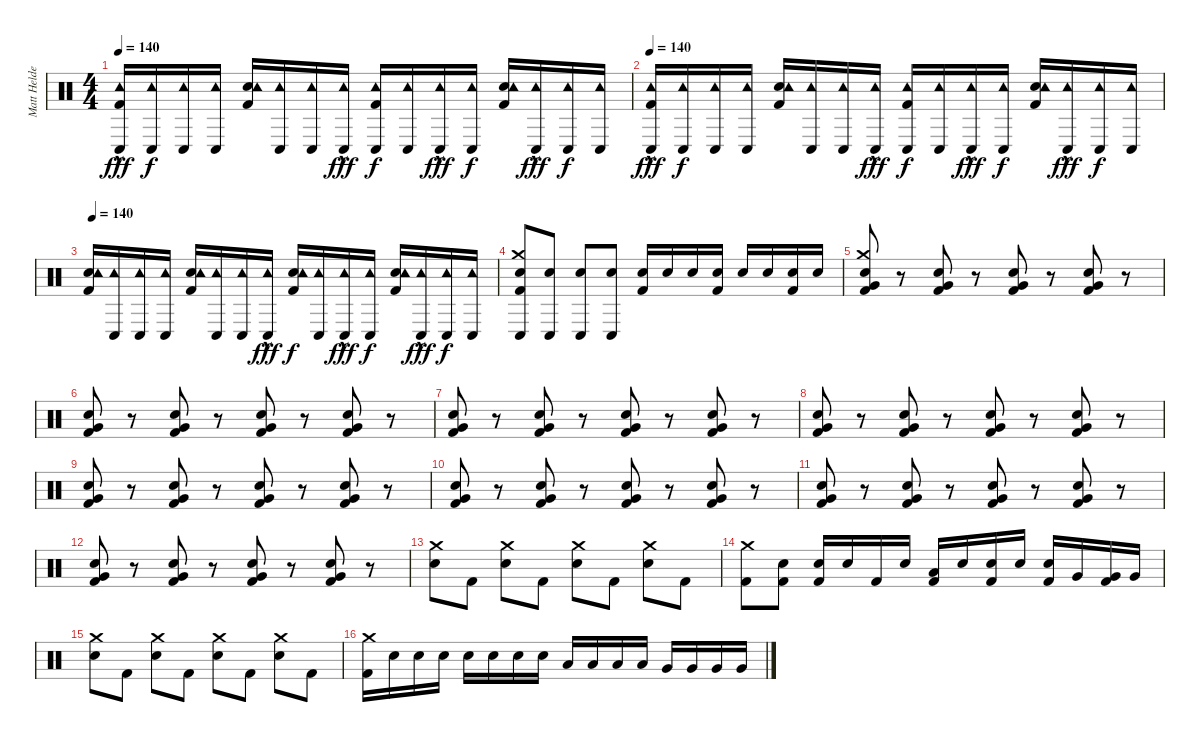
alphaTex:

\track ("Matt Helders" "Matt Helde") {instrument percussion}
\staff {score}
\articulation defaults
\ts (4 4)
\tempo 140
\clef neutral
\ks c
("Conga low (hit)"{hac} "Tambourine (hit)" "Kick (hit) 2").16{dy fff} ("Conga low (hit)" "Tambourine (hit)").16{dy f} ("Conga low (hit)" "Tambourine (hit)").16 ("Conga low (hit)" "Tambourine (hit)").16 ("Snare (hit) 2" "Tambourine (hit)" "Kick (hit) 2").16 ("Conga low (hit)" "Tambourine (hit)").16 ("Conga low (hit)" "Tambourine (hit)").16 ("Conga low (hit)"{hac} "Tambourine (hit)").16{dy fff} ("Conga low (hit)" "Tambourine (hit)" "Kick (hit) 2").16{dy f} ("Conga low (hit)" "Tambourine (hit)").16 ("Conga low (hit)"{hac} "Tambourine (hit)").16{dy fff} ("Conga low (hit)" "Tambourine (hit)").16{dy f} ("Snare (hit) 2" "Tambourine (hit)" "Kick (hit) 2").16 ("Conga low (hit)"{hac} "Tambourine (hit)").16{dy fff} ("Conga low (hit)" "Tambourine (hit)").16{dy f} ("Conga low (hit)" "Tambourine (hit)").16 |
\tempo 140
("Conga low (hit)"{hac} "Tambourine (hit)" "Kick (hit) 2").16{dy fff} ("Conga low (hit)" "Tambourine (hit)").16{dy f} ("Conga low (hit)" "Tambourine (hit)").16 ("Conga low (hit)" "Tambourine (hit)").16 ("Snare (hit) 2" "Tambourine (hit)" "Kick (hit) 2").16 ("Conga low (hit)" "Tambourine (hit)").16 ("Conga low (hit)" "Tambourine (hit)").16 ("Conga low (hit)"{hac} "Tambourine (hit)").16{dy fff} ("Conga low (hit)" "Tambourine (hit)" "Kick (hit) 2").16{dy f} ("Conga low (hit)" "Tambourine (hit)").16 ("Conga low (hit)"{hac} "Tambourine (hit)").16{dy fff} ("Conga low (hit)" "Tambourine (hit)").16{dy f} ("Snare (hit) 2" "Tambourine (hit)" "Kick (hit) 2").16 ("Conga low (hit)"{hac} "Tambourine (hit)").16{dy fff} ("Conga low (hit)" "Tambourine (hit)").16{dy f} ("Conga low (hit)" "Tambourine (hit)").16 |
\tempo 140
("Snare (hit) 2" "Tambourine (hit)" "Kick (hit) 2").16 ("Conga low (hit)" "Tambourine (hit)").16 ("Conga low (hit)" "Tambourine (hit)").16 ("Conga low (hit)" "Tambourine (hit)").16 ("Snare (hit) 2" "Tambourine (hit)" "Kick (hit) 2").16 ("Conga low (hit)" "Tambourine (hit)").16 ("Conga low (hit)" "Tambourine (hit)").16 ("Conga low (hit)"{hac} "Tambourine (hit)").16{dy fff} ("Snare (hit) 2" "Tambourine (hit)" "Kick (hit) 2").16{dy f} ("Conga low (hit)" "Tambourine (hit)").16 ("Conga low (hit)"{hac} "Tambourine (hit)").16{dy fff} ("Conga low (hit)" "Tambourine (hit)").16{dy f} ("Snare (hit) 2" "Tambourine (hit)" "Kick (hit) 2").16 ("Conga low (hit)"{hac} "Tambourine (hit)").16{dy fff} ("Conga low (hit)" "Tambourine (hit)").16{dy f} ("Conga low (hit)" "Tambourine (hit)").16 |
("Crash medium (hit)" "Conga low (hit)" "Snare (hit) 2" "Kick (hit) 2").8 ("Conga low (hit)" "Snare (hit) 2").8 ("Conga low (hit)" "Snare (hit) 2").8 ("Conga low (hit)" "Snare (hit) 2").8 ("Snare (hit) 2" "Kick (hit) 2").16 "Snare (hit) 2".16 "Snare (hit) 2".16 ("Snare (hit) 2" "Kick (hit) 2").16 "Snare (hit) 2".16 "Snare (hit) 2".16 ("Snare (hit) 2" "Kick (hit) 2").16 "Snare (hit) 2".16 |
("Crash medium (hit)" "Snare (hit) 2" "Very Low Tom (hit)" "Kick (hit) 2").8 r.8 ("Snare (hit) 2" "Very Low Tom (hit)" "Kick (hit) 2").8 r.8 ("Snare (hit) 2" "Very Low Tom (hit)" "Kick (hit) 2").8 r.8 ("Snare (hit) 2" "Very Low Tom (hit)" "Kick (hit) 2").8 r.8 |
("Snare (hit) 2" "Very Low Tom (hit)" "Kick (hit) 2").8 r.8 ("Snare (hit) 2" "Very Low Tom (hit)" "Kick (hit) 2").8 r.8 ("Snare (hit) 2" "Very Low Tom (hit)" "Kick (hit) 2").8 r.8 ("Snare (hit) 2" "Very Low Tom (hit)" "Kick (hit) 2").8 r.8 |
("Snare (hit) 2" "Very Low Tom (hit)" "Kick (hit) 2").8 r.8 ("Snare (hit) 2" "Very Low Tom (hit)" "Kick (hit) 2").8 r.8 ("Snare (hit) 2" "Very Low Tom (hit)" "Kick (hit) 2").8 r.8 ("Snare (hit) 2" "Very Low Tom (hit)" "Kick (hit) 2").8 r.8 |
("Snare (hit) 2" "Very Low Tom (hit)" "Kick (hit) 2").8 r.8 ("Snare (hit) 2" "Very Low Tom (hit)" "Kick (hit) 2").8 r.8 ("Snare (hit) 2" "Very Low Tom (hit)" "Kick (hit) 2").8 r.8 ("Snare (hit) 2" "Very Low Tom (hit)" "Kick (hit) 2").8 r.8 |
("Snare (hit) 2" "Very Low Tom (hit)" "Kick (hit) 2").8 r.8 ("Snare (hit) 2" "Very Low Tom (hit)" "Kick (hit) 2").8 r.8 ("Snare (hit) 2" "Very Low Tom (hit)" "Kick (hit) 2").8 r.8 ("Snare (hit) 2" "Very Low Tom (hit)" "Kick (hit) 2").8 r.8 |
("Snare (hit) 2" "Very Low Tom (hit)" "Kick (hit) 2").8 r.8 ("Snare (hit) 2" "Very Low Tom (hit)" "Kick (hit) 2").8 r.8 ("Snare (hit) 2" "Very Low Tom (hit)" "Kick (hit) 2").8 r.8 ("Snare (hit) 2" "Very Low Tom (hit)" "Kick (hit) 2").8 r.8 |
("Snare (hit) 2" "Very Low Tom (hit)" "Kick (hit) 2").8 r.8 ("Snare (hit) 2" "Very Low Tom (hit)" "Kick (hit) 2").8 r.8 ("Snare (hit) 2" "Very Low Tom (hit)" "Kick (hit) 2").8 r.8 ("Snare (hit) 2" "Very Low Tom (hit)" "Kick (hit) 2").8 r.8 |
("Snare (hit) 2" "Very Low Tom (hit)" "Kick (hit) 2").8 r.8 ("Snare (hit) 2" "Very Low Tom (hit)" "Kick (hit) 2").8 r.8 ("Snare (hit) 2" "Very Low Tom (hit)" "Kick (hit) 2").8 r.8 ("Snare (hit) 2" "Very Low Tom (hit)" "Kick (hit) 2").8 r.8 |
("Snare (hit) 2" "Crash medium (hit)").8 "Kick (hit) 2".8 ("Snare (hit) 2" "Crash medium (hit)").8 "Kick (hit) 2".8 ("Snare (hit) 2" "Crash medium (hit)").8 "Kick (hit) 2".8 ("Snare (hit) 2" "Crash medium (hit)").8 "Kick (hit) 2".8 |
("Crash medium (hit)" "Kick (hit) 2").8 ("Snare (hit) 2" "Kick (hit) 2").8 ("Snare (hit) 2" "Kick (hit) 2").16 "Snare (hit) 2".16 "Kick (hit) 2".16 "Snare (hit) 2".16 ("Low Tom (hit)" "Kick (hit) 2").16 "Snare (hit) 2".16 ("Snare (hit) 2" "Kick (hit) 2").16 "Snare (hit) 2".16 ("Snare (hit) 2" "Kick (hit) 2").16 "Very Low Tom (hit)".16 ("Very Low Tom (hit)" "Kick (hit) 2").16 "Very Low Tom (hit)".16 |
("Snare (hit) 2" "Crash medium (hit)").8 "Kick (hit) 2".8 ("Snare (hit) 2" "Crash medium (hit)").8 "Kick (hit) 2".8 ("Snare (hit) 2" "Crash medium (hit)").8 "Kick (hit) 2".8 ("Snare (hit) 2" "Crash medium (hit)").8 "Kick (hit) 2".8 |
("Crash medium (hit)" "Kick (hit) 2").16 "Snare (hit) 2".16 "Snare (hit) 2".16 "Snare (hit) 2".16 "Snare (hit) 2".16 "Snare (hit) 2".16 "Snare (hit) 2".16 "Snare (hit) 2".16 "Low Tom (hit)".16 "Low Tom (hit)".16 "Low Tom (hit)".16 "Low Tom (hit)".16 "Very Low Tom (hit)".16 "Very Low Tom (hit)".16 "Very Low Tom (hit)".16 "Very Low Tom (hit)".16
